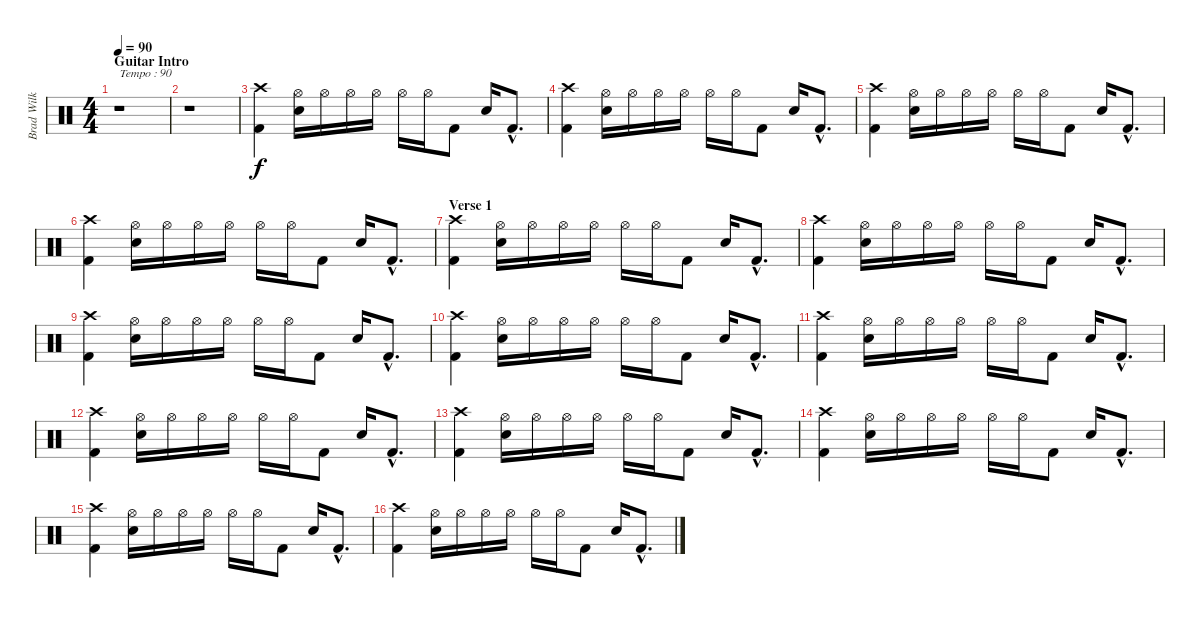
\track ("Brad Wilk / Drums" "Brad Wilk ") {instrument percussion}
\staff {score}
\articulation defaults
\ts (4 4)
\section ("" "Guitar Intro")
\tempo 90
\clef neutral
\ks c
r.1{txt "Tempo : 90" dy f} |
r.1 |
("Crash high (hit)" "Kick (hit) 2").4 ("Hi-Hat (open)" "Electric Snare (hit)").16 "Hi-Hat (open)".16 "Hi-Hat (open)".16 "Hi-Hat (open)".16 "Hi-Hat (open)".16 "Hi-Hat (open)".16 "Kick (hit) 2".8 "Electric Snare (hit)".16 "Kick (hit) 2"{hac}.8{d} |
("Crash high (hit)" "Kick (hit) 2").4 ("Hi-Hat (open)" "Electric Snare (hit)").16 "Hi-Hat (open)".16 "Hi-Hat (open)".16 "Hi-Hat (open)".16 "Hi-Hat (open)".16 "Hi-Hat (open)".16 "Kick (hit) 2".8 "Electric Snare (hit)".16 "Kick (hit) 2"{hac}.8{d} |
("Crash high (hit)" "Kick (hit) 2").4 ("Hi-Hat (open)" "Electric Snare (hit)").16 "Hi-Hat (open)".16 "Hi-Hat (open)".16 "Hi-Hat (open)".16 "Hi-Hat (open)".16 "Hi-Hat (open)".16 "Kick (hit) 2".8 "Electric Snare (hit)".16 "Kick (hit) 2"{hac}.8{d} |
("Crash high (hit)" "Kick (hit) 2").4 ("Hi-Hat (open)" "Electric Snare (hit)").16 "Hi-Hat (open)".16 "Hi-Hat (open)".16 "Hi-Hat (open)".16 "Hi-Hat (open)".16 "Hi-Hat (open)".16 "Kick (hit) 2".8 "Electric Snare (hit)".16 "Kick (hit) 2"{hac}.8{d} |
\section ("" "Verse 1")
("Crash high (hit)" "Kick (hit) 2").4 ("Hi-Hat (open)" "Electric Snare (hit)").16 "Hi-Hat (open)".16 "Hi-Hat (open)".16 "Hi-Hat (open)".16 "Hi-Hat (open)".16 "Hi-Hat (open)".16 "Kick (hit) 2".8 "Electric Snare (hit)".16 "Kick (hit) 2"{hac}.8{d} |
("Crash high (hit)" "Kick (hit) 2").4 ("Hi-Hat (open)" "Electric Snare (hit)").16 "Hi-Hat (open)".16 "Hi-Hat (open)".16 "Hi-Hat (open)".16 "Hi-Hat (open)".16 "Hi-Hat (open)".16 "Kick (hit) 2".8 "Electric Snare (hit)".16 "Kick (hit) 2"{hac}.8{d} |
("Crash high (hit)" "Kick (hit) 2").4 ("Hi-Hat (open)" "Electric Snare (hit)").16 "Hi-Hat (open)".16 "Hi-Hat (open)".16 "Hi-Hat (open)".16 "Hi-Hat (open)".16 "Hi-Hat (open)".16 "Kick (hit) 2".8 "Electric Snare (hit)".16 "Kick (hit) 2"{hac}.8{d} |
("Crash high (hit)" "Kick (hit) 2").4 ("Hi-Hat (open)" "Electric Snare (hit)").16 "Hi-Hat (open)".16 "Hi-Hat (open)".16 "Hi-Hat (open)".16 "Hi-Hat (open)".16 "Hi-Hat (open)".16 "Kick (hit) 2".8 "Electric Snare (hit)".16 "Kick (hit) 2"{hac}.8{d} |
("Crash high (hit)" "Kick (hit) 2").4 ("Hi-Hat (open)" "Electric Snare (hit)").16 "Hi-Hat (open)".16 "Hi-Hat (open)".16 "Hi-Hat (open)".16 "Hi-Hat (open)".16 "Hi-Hat (open)".16 "Kick (hit) 2".8 "Electric Snare (hit)".16 "Kick (hit) 2"{hac}.8{d} |
("Crash high (hit)" "Kick (hit) 2").4 ("Hi-Hat (open)" "Electric Snare (hit)").16 "Hi-Hat (open)".16 "Hi-Hat (open)".16 "Hi-Hat (open)".16 "Hi-Hat (open)".16 "Hi-Hat (open)".16 "Kick (hit) 2".8 "Electric Snare (hit)".16 "Kick (hit) 2"{hac}.8{d} |
("Crash high (hit)" "Kick (hit) 2").4 ("Hi-Hat (open)" "Electric Snare (hit)").16 "Hi-Hat (open)".16 "Hi-Hat (open)".16 "Hi-Hat (open)".16 "Hi-Hat (open)".16 "Hi-Hat (open)".16 "Kick (hit) 2".8 "Electric Snare (hit)".16 "Kick (hit) 2"{hac}.8{d} |
("Crash high (hit)" "Kick (hit) 2").4 ("Hi-Hat (open)" "Electric Snare (hit)").16 "Hi-Hat (open)".16 "Hi-Hat (open)".16 "Hi-Hat (open)".16 "Hi-Hat (open)".16 "Hi-Hat (open)".16 "Kick (hit) 2".8 "Electric Snare (hit)".16 "Kick (hit) 2"{hac}.8{d} |
("Crash high (hit)" "Kick (hit) 2").4 ("Hi-Hat (open)" "Electric Snare (hit)").16 "Hi-Hat (open)".16 "Hi-Hat (open)".16 "Hi-Hat (open)".16 "Hi-Hat (open)".16 "Hi-Hat (open)".16 "Kick (hit) 2".8 "Electric Snare (hit)".16 "Kick (hit) 2"{hac}.8{d} |
("Crash high (hit)" "Kick (hit) 2").4 ("Hi-Hat (open)" "Electric Snare (hit)").16 "Hi-Hat (open)".16 "Hi-Hat (open)".16 "Hi-Hat (open)".16 "Hi-Hat (open)".16 "Hi-Hat (open)".16 "Kick (hit) 2".8 "Electric Snare (hit)".16 "Kick (hit) 2"{hac}.8{d}
